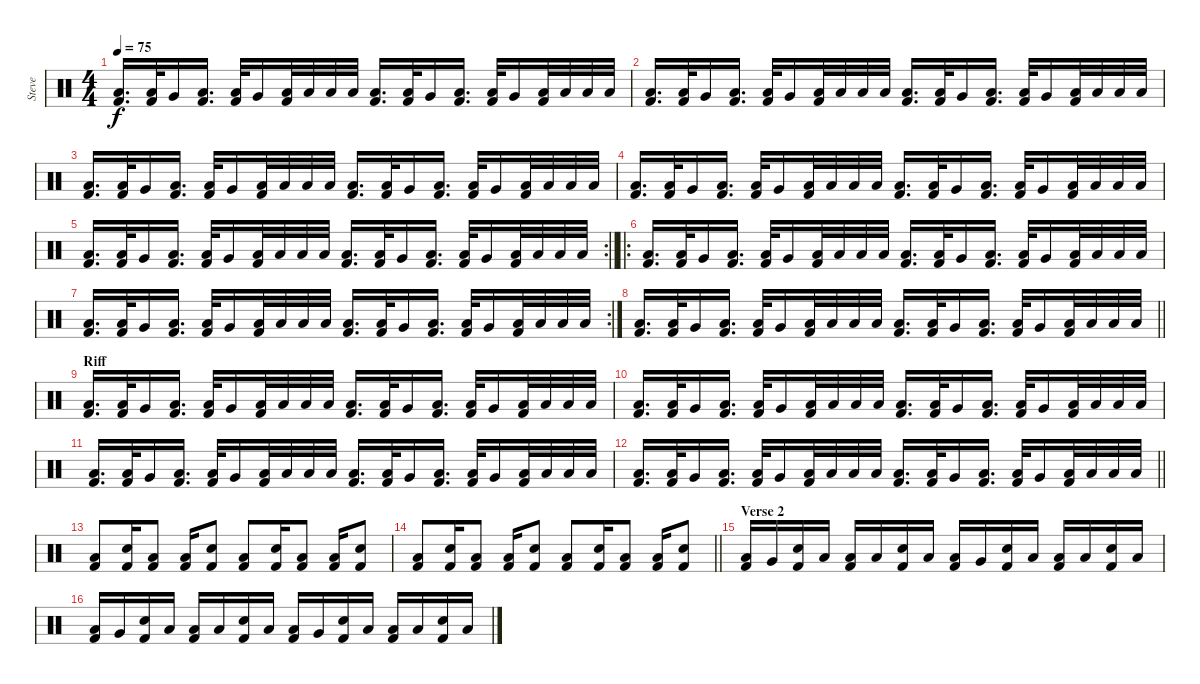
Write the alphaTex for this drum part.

\track ("Steve" "Steve") {instrument percussion}
\staff {score}
\articulation defaults
\ts (4 4)
\tempo 75
\clef neutral
\ks c
("Kick (hit) 2" "Low Floor Tom (hit)").16{d dy f} ("Kick (hit) 2" "Low Tom (hit)").32 "Very Low Tom (hit)".16 ("Kick (hit) 2" "Low Floor Tom (hit)").16{d} ("Kick (hit) 2" "Low Tom (hit)").32 "Very Low Tom (hit)".16 ("Kick (hit) 2" "Low Floor Tom (hit)").32 "Low Floor Tom (hit)".32 "Low Floor Tom (hit)".32 "Low Floor Tom (hit)".32 ("Kick (hit) 2" "Low Floor Tom (hit)").16{d} ("Kick (hit) 2" "Low Tom (hit)").32 "Very Low Tom (hit)".16 ("Kick (hit) 2" "Low Floor Tom (hit)").16{d} ("Kick (hit) 2" "Low Tom (hit)").32 "Very Low Tom (hit)".16 ("Kick (hit) 2" "Low Floor Tom (hit)").32 "Low Floor Tom (hit)".32 "Low Floor Tom (hit)".32 "Low Floor Tom (hit)".32 |
("Kick (hit) 2" "Low Floor Tom (hit)").16{d} ("Kick (hit) 2" "Low Tom (hit)").32 "Very Low Tom (hit)".16 ("Kick (hit) 2" "Low Floor Tom (hit)").16{d} ("Kick (hit) 2" "Low Tom (hit)").32 "Very Low Tom (hit)".16 ("Kick (hit) 2" "Low Floor Tom (hit)").32 "Low Floor Tom (hit)".32 "Low Floor Tom (hit)".32 "Low Floor Tom (hit)".32 ("Kick (hit) 2" "Low Floor Tom (hit)").16{d} ("Kick (hit) 2" "Low Tom (hit)").32 "Very Low Tom (hit)".16 ("Kick (hit) 2" "Low Floor Tom (hit)").16{d} ("Kick (hit) 2" "Low Tom (hit)").32 "Very Low Tom (hit)".16 ("Kick (hit) 2" "Low Floor Tom (hit)").32 "Low Floor Tom (hit)".32 "Low Floor Tom (hit)".32 "Low Floor Tom (hit)".32 |
("Kick (hit) 2" "Low Floor Tom (hit)").16{d} ("Kick (hit) 2" "Low Tom (hit)").32 "Very Low Tom (hit)".16 ("Kick (hit) 2" "Low Floor Tom (hit)").16{d} ("Kick (hit) 2" "Low Tom (hit)").32 "Very Low Tom (hit)".16 ("Kick (hit) 2" "Low Floor Tom (hit)").32 "Low Floor Tom (hit)".32 "Low Floor Tom (hit)".32 "Low Floor Tom (hit)".32 ("Kick (hit) 2" "Low Floor Tom (hit)").16{d} ("Kick (hit) 2" "Low Tom (hit)").32 "Very Low Tom (hit)".16 ("Kick (hit) 2" "Low Floor Tom (hit)").16{d} ("Kick (hit) 2" "Low Tom (hit)").32 "Very Low Tom (hit)".16 ("Kick (hit) 2" "Low Floor Tom (hit)").32 "Low Floor Tom (hit)".32 "Low Floor Tom (hit)".32 "Low Floor Tom (hit)".32 |
("Kick (hit) 2" "Low Floor Tom (hit)").16{d} ("Kick (hit) 2" "Low Tom (hit)").32 "Very Low Tom (hit)".16 ("Kick (hit) 2" "Low Floor Tom (hit)").16{d} ("Kick (hit) 2" "Low Tom (hit)").32 "Very Low Tom (hit)".16 ("Kick (hit) 2" "Low Floor Tom (hit)").32 "Low Floor Tom (hit)".32 "Low Floor Tom (hit)".32 "Low Floor Tom (hit)".32 ("Kick (hit) 2" "Low Floor Tom (hit)").16{d} ("Kick (hit) 2" "Low Tom (hit)").32 "Very Low Tom (hit)".16 ("Kick (hit) 2" "Low Floor Tom (hit)").16{d} ("Kick (hit) 2" "Low Tom (hit)").32 "Very Low Tom (hit)".16 ("Kick (hit) 2" "Low Floor Tom (hit)").32 "Low Floor Tom (hit)".32 "Low Floor Tom (hit)".32 "Low Floor Tom (hit)".32 |
\rc 2
\barLineRight lightlight
("Kick (hit) 2" "Low Floor Tom (hit)").16{d} ("Kick (hit) 2" "Low Tom (hit)").32 "Very Low Tom (hit)".16 ("Kick (hit) 2" "Low Floor Tom (hit)").16{d} ("Kick (hit) 2" "Low Tom (hit)").32 "Very Low Tom (hit)".16 ("Kick (hit) 2" "Low Floor Tom (hit)").32 "Low Floor Tom (hit)".32 "Low Floor Tom (hit)".32 "Low Floor Tom (hit)".32 ("Kick (hit) 2" "Low Floor Tom (hit)").16{d} ("Kick (hit) 2" "Low Tom (hit)").32 "Very Low Tom (hit)".16 ("Kick (hit) 2" "Low Floor Tom (hit)").16{d} ("Kick (hit) 2" "Low Tom (hit)").32 "Very Low Tom (hit)".16 ("Kick (hit) 2" "Low Floor Tom (hit)").32 "Low Floor Tom (hit)".32 "Low Floor Tom (hit)".32 "Low Floor Tom (hit)".32 |
\ro
("Kick (hit) 2" "Low Floor Tom (hit)").16{d} ("Kick (hit) 2" "Low Tom (hit)").32 "Very Low Tom (hit)".16 ("Kick (hit) 2" "Low Floor Tom (hit)").16{d} ("Kick (hit) 2" "Low Tom (hit)").32 "Very Low Tom (hit)".16 ("Kick (hit) 2" "Low Floor Tom (hit)").32 "Low Floor Tom (hit)".32 "Low Floor Tom (hit)".32 "Low Floor Tom (hit)".32 ("Kick (hit) 2" "Low Floor Tom (hit)").16{d} ("Kick (hit) 2" "Low Tom (hit)").32 "Very Low Tom (hit)".16 ("Kick (hit) 2" "Low Floor Tom (hit)").16{d} ("Kick (hit) 2" "Low Tom (hit)").32 "Very Low Tom (hit)".16 ("Kick (hit) 2" "Low Floor Tom (hit)").32 "Low Floor Tom (hit)".32 "Low Floor Tom (hit)".32 "Low Floor Tom (hit)".32 |
\rc 2
("Kick (hit) 2" "Low Floor Tom (hit)").16{d} ("Kick (hit) 2" "Low Tom (hit)").32 "Very Low Tom (hit)".16 ("Kick (hit) 2" "Low Floor Tom (hit)").16{d} ("Kick (hit) 2" "Low Tom (hit)").32 "Very Low Tom (hit)".16 ("Kick (hit) 2" "Low Floor Tom (hit)").32 "Low Floor Tom (hit)".32 "Low Floor Tom (hit)".32 "Low Floor Tom (hit)".32 ("Kick (hit) 2" "Low Floor Tom (hit)").16{d} ("Kick (hit) 2" "Low Tom (hit)").32 "Very Low Tom (hit)".16 ("Kick (hit) 2" "Low Floor Tom (hit)").16{d} ("Kick (hit) 2" "Low Tom (hit)").32 "Very Low Tom (hit)".16 ("Kick (hit) 2" "Low Floor Tom (hit)").32 "Low Floor Tom (hit)".32 "Low Floor Tom (hit)".32 "Low Floor Tom (hit)".32 |
\barLineRight lightlight
("Kick (hit) 2" "Low Floor Tom (hit)").16{d} ("Kick (hit) 2" "Low Tom (hit)").32 "Very Low Tom (hit)".16 ("Kick (hit) 2" "Low Floor Tom (hit)").16{d} ("Kick (hit) 2" "Low Tom (hit)").32 "Very Low Tom (hit)".16 ("Kick (hit) 2" "Low Floor Tom (hit)").32 "Low Floor Tom (hit)".32 "Low Floor Tom (hit)".32 "Low Floor Tom (hit)".32 ("Kick (hit) 2" "Low Floor Tom (hit)").16{d} ("Kick (hit) 2" "Low Tom (hit)").32 "Very Low Tom (hit)".16 ("Kick (hit) 2" "Low Floor Tom (hit)").16{d} ("Kick (hit) 2" "Low Tom (hit)").32 "Very Low Tom (hit)".16 ("Kick (hit) 2" "Low Floor Tom (hit)").32 "Low Floor Tom (hit)".32 "Low Floor Tom (hit)".32 "Low Floor Tom (hit)".32 |
\section ("" "Riff")
("Kick (hit) 2" "Low Floor Tom (hit)").16{d} ("Kick (hit) 2" "Low Tom (hit)").32 "Very Low Tom (hit)".16 ("Kick (hit) 2" "Low Floor Tom (hit)").16{d} ("Kick (hit) 2" "Low Tom (hit)").32 "Very Low Tom (hit)".16 ("Kick (hit) 2" "Low Floor Tom (hit)").32 "Low Floor Tom (hit)".32 "Low Floor Tom (hit)".32 "Low Floor Tom (hit)".32 ("Kick (hit) 2" "Low Floor Tom (hit)").16{d} ("Kick (hit) 2" "Low Tom (hit)").32 "Very Low Tom (hit)".16 ("Kick (hit) 2" "Low Floor Tom (hit)").16{d} ("Kick (hit) 2" "Low Tom (hit)").32 "Very Low Tom (hit)".16 ("Kick (hit) 2" "Low Floor Tom (hit)").32 "Low Floor Tom (hit)".32 "Low Floor Tom (hit)".32 "Low Floor Tom (hit)".32 |
("Kick (hit) 2" "Low Floor Tom (hit)").16{d} ("Kick (hit) 2" "Low Tom (hit)").32 "Very Low Tom (hit)".16 ("Kick (hit) 2" "Low Floor Tom (hit)").16{d} ("Kick (hit) 2" "Low Tom (hit)").32 "Very Low Tom (hit)".16 ("Kick (hit) 2" "Low Floor Tom (hit)").32 "Low Floor Tom (hit)".32 "Low Floor Tom (hit)".32 "Low Floor Tom (hit)".32 ("Kick (hit) 2" "Low Floor Tom (hit)").16{d} ("Kick (hit) 2" "Low Tom (hit)").32 "Very Low Tom (hit)".16 ("Kick (hit) 2" "Low Floor Tom (hit)").16{d} ("Kick (hit) 2" "Low Tom (hit)").32 "Very Low Tom (hit)".16 ("Kick (hit) 2" "Low Floor Tom (hit)").32 "Low Floor Tom (hit)".32 "Low Floor Tom (hit)".32 "Low Floor Tom (hit)".32 |
("Kick (hit) 2" "Low Floor Tom (hit)").16{d} ("Kick (hit) 2" "Low Tom (hit)").32 "Very Low Tom (hit)".16 ("Kick (hit) 2" "Low Floor Tom (hit)").16{d} ("Kick (hit) 2" "Low Tom (hit)").32 "Very Low Tom (hit)".16 ("Kick (hit) 2" "Low Floor Tom (hit)").32 "Low Floor Tom (hit)".32 "Low Floor Tom (hit)".32 "Low Floor Tom (hit)".32 ("Kick (hit) 2" "Low Floor Tom (hit)").16{d} ("Kick (hit) 2" "Low Tom (hit)").32 "Very Low Tom (hit)".16 ("Kick (hit) 2" "Low Floor Tom (hit)").16{d} ("Kick (hit) 2" "Low Tom (hit)").32 "Very Low Tom (hit)".16 ("Kick (hit) 2" "Low Floor Tom (hit)").32 "Low Floor Tom (hit)".32 "Low Floor Tom (hit)".32 "Low Floor Tom (hit)".32 |
\barLineRight lightlight
("Kick (hit) 2" "Low Floor Tom (hit)").16{d} ("Kick (hit) 2" "Low Tom (hit)").32 "Very Low Tom (hit)".16 ("Kick (hit) 2" "Low Floor Tom (hit)").16{d} ("Kick (hit) 2" "Low Tom (hit)").32 "Very Low Tom (hit)".16 ("Kick (hit) 2" "Low Floor Tom (hit)").32 "Low Floor Tom (hit)".32 "Low Floor Tom (hit)".32 "Low Floor Tom (hit)".32 ("Kick (hit) 2" "Low Floor Tom (hit)").16{d} ("Kick (hit) 2" "Low Tom (hit)").32 "Very Low Tom (hit)".16 ("Kick (hit) 2" "Low Floor Tom (hit)").16{d} ("Kick (hit) 2" "Low Tom (hit)").32 "Very Low Tom (hit)".16 ("Kick (hit) 2" "Low Floor Tom (hit)").32 "Low Floor Tom (hit)".32 "Low Floor Tom (hit)".32 "Low Floor Tom (hit)".32 |
("Kick (hit) 2" "Low Floor Tom (hit)").8 ("Kick (hit) 2" "Snare (hit) 2").16 ("Kick (hit) 2" "Low Floor Tom (hit)").8 ("Kick (hit) 2" "Low Floor Tom (hit)").16 ("Kick (hit) 2" "Snare (hit) 2").8 ("Kick (hit) 2" "Low Floor Tom (hit)").8 ("Kick (hit) 2" "Snare (hit) 2").16 ("Kick (hit) 2" "Low Floor Tom (hit)").8 ("Kick (hit) 2" "Low Floor Tom (hit)").16 ("Kick (hit) 2" "Snare (hit) 2").8 |
\barLineRight lightlight
("Kick (hit) 2" "Low Floor Tom (hit)").8 ("Kick (hit) 2" "Snare (hit) 2").16 ("Kick (hit) 2" "Low Floor Tom (hit)").8 ("Kick (hit) 2" "Low Floor Tom (hit)").16 ("Kick (hit) 2" "Snare (hit) 2").8 ("Kick (hit) 2" "Low Floor Tom (hit)").8 ("Kick (hit) 2" "Snare (hit) 2").16 ("Kick (hit) 2" "Low Floor Tom (hit)").8 ("Kick (hit) 2" "Low Floor Tom (hit)").16 ("Kick (hit) 2" "Snare (hit) 2").8 |
\section ("" "Verse 2")
("Kick (hit) 2" "Low Floor Tom (hit)").16 "Very Low Tom (hit)".16 ("Kick (hit) 2" "Snare (hit) 2").16 "Low Floor Tom (hit)".16 ("Kick (hit) 2" "Low Tom (hit)").16 "Low Floor Tom (hit)".16 ("Kick (hit) 2" "Snare (hit) 2").16 "Low Floor Tom (hit)".16 ("Kick (hit) 2" "Low Floor Tom (hit)").16 "Very Low Tom (hit)".16 ("Kick (hit) 2" "Snare (hit) 2").16 "Low Floor Tom (hit)".16 ("Kick (hit) 2" "Low Tom (hit)").16 "Low Floor Tom (hit)".16 ("Kick (hit) 2" "Snare (hit) 2").16 "Low Floor Tom (hit)".16 |
("Kick (hit) 2" "Low Floor Tom (hit)").16 "Very Low Tom (hit)".16 ("Kick (hit) 2" "Snare (hit) 2").16 "Low Floor Tom (hit)".16 ("Kick (hit) 2" "Low Tom (hit)").16 "Low Floor Tom (hit)".16 ("Kick (hit) 2" "Snare (hit) 2").16 "Low Floor Tom (hit)".16 ("Kick (hit) 2" "Low Floor Tom (hit)").16 "Very Low Tom (hit)".16 ("Kick (hit) 2" "Snare (hit) 2").16 "Low Floor Tom (hit)".16 ("Kick (hit) 2" "Low Tom (hit)").16 "Low Floor Tom (hit)".16 ("Kick (hit) 2" "Snare (hit) 2").16 "Low Floor Tom (hit)".16
